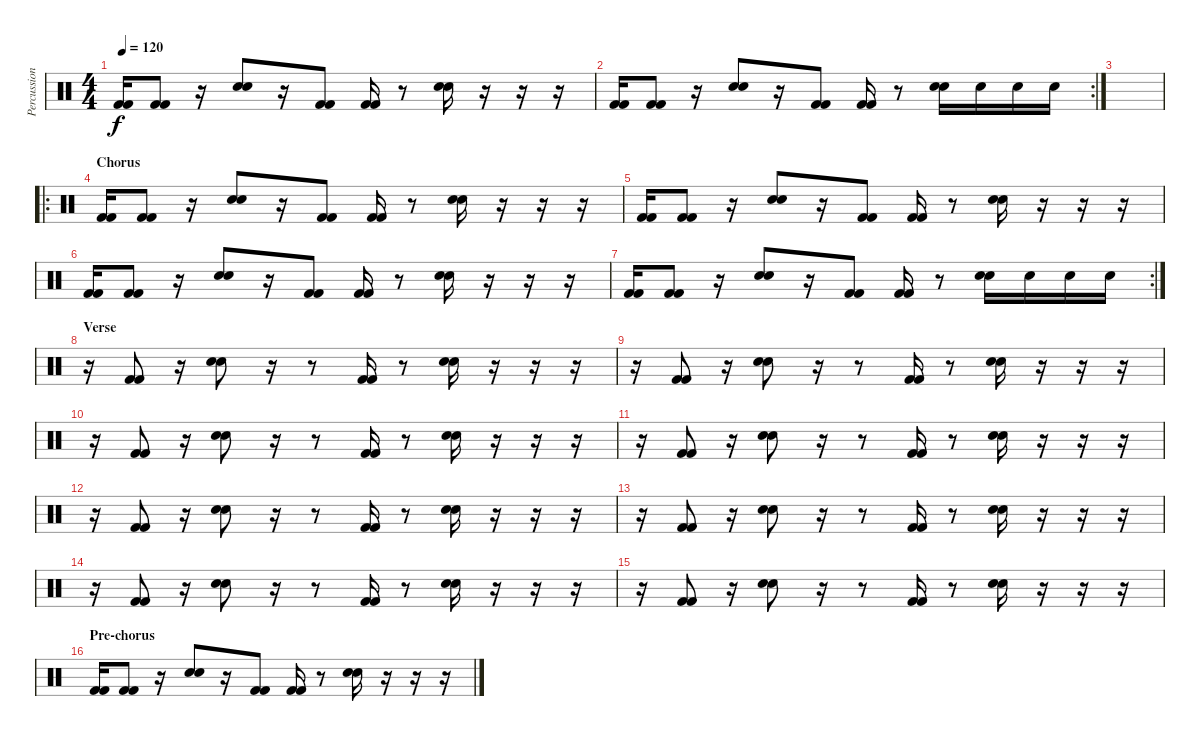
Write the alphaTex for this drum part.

\track ("Percussion" "Percussion") {instrument percussion}
\staff {score}
\articulation defaults
\ts (4 4)
\tempo 120
\clef neutral
\ks c
("Kick (hit) 2" "Kick (hit) 2").16{dy f} ("Kick (hit) 2" "Kick (hit) 2").8 r.16 ("Electric Snare (hit)" "Electric Snare (hit)").8 r.16 ("Kick (hit) 2" "Kick (hit) 2").8 ("Kick (hit) 2" "Kick (hit) 2").16 r.8 ("Electric Snare (hit)" "Electric Snare (hit)").16 r.16 r.16 r.16 |
\rc 2
("Kick (hit) 2" "Kick (hit) 2").16 ("Kick (hit) 2" "Kick (hit) 2").8 r.16 ("Electric Snare (hit)" "Electric Snare (hit)").8 r.16 ("Kick (hit) 2" "Kick (hit) 2").8 ("Kick (hit) 2" "Kick (hit) 2").16 r.8 ("Electric Snare (hit)" "Electric Snare (hit)").16 "Electric Snare (hit)".16 "Electric Snare (hit)".16 "Electric Snare (hit)".16 |
|
\ro
\section ("" "Chorus")
("Kick (hit) 2" "Kick (hit) 2").16 ("Kick (hit) 2" "Kick (hit) 2").8 r.16 ("Electric Snare (hit)" "Electric Snare (hit)").8 r.16 ("Kick (hit) 2" "Kick (hit) 2").8 ("Kick (hit) 2" "Kick (hit) 2").16 r.8 ("Electric Snare (hit)" "Electric Snare (hit)").16 r.16 r.16 r.16 |
("Kick (hit) 2" "Kick (hit) 2").16 ("Kick (hit) 2" "Kick (hit) 2").8 r.16 ("Electric Snare (hit)" "Electric Snare (hit)").8 r.16 ("Kick (hit) 2" "Kick (hit) 2").8 ("Kick (hit) 2" "Kick (hit) 2").16 r.8 ("Electric Snare (hit)" "Electric Snare (hit)").16 r.16 r.16 r.16 |
("Kick (hit) 2" "Kick (hit) 2").16 ("Kick (hit) 2" "Kick (hit) 2").8 r.16 ("Electric Snare (hit)" "Electric Snare (hit)").8 r.16 ("Kick (hit) 2" "Kick (hit) 2").8 ("Kick (hit) 2" "Kick (hit) 2").16 r.8 ("Electric Snare (hit)" "Electric Snare (hit)").16 r.16 r.16 r.16 |
\rc 2
("Kick (hit) 2" "Kick (hit) 2").16 ("Kick (hit) 2" "Kick (hit) 2").8 r.16 ("Electric Snare (hit)" "Electric Snare (hit)").8 r.16 ("Kick (hit) 2" "Kick (hit) 2").8 ("Kick (hit) 2" "Kick (hit) 2").16 r.8 ("Electric Snare (hit)" "Electric Snare (hit)").16 "Electric Snare (hit)".16 "Electric Snare (hit)".16 "Electric Snare (hit)".16 |
\section ("" "Verse")
r.16 ("Kick (hit) 2" "Kick (hit) 2").8 r.16 ("Electric Snare (hit)" "Electric Snare (hit)").8 r.16 r.8 ("Kick (hit) 2" "Kick (hit) 2").16 r.8 ("Electric Snare (hit)" "Electric Snare (hit)").16 r.16 r.16 r.16 |
r.16 ("Kick (hit) 2" "Kick (hit) 2").8 r.16 ("Electric Snare (hit)" "Electric Snare (hit)").8 r.16 r.8 ("Kick (hit) 2" "Kick (hit) 2").16 r.8 ("Electric Snare (hit)" "Electric Snare (hit)").16 r.16 r.16 r.16 |
r.16 ("Kick (hit) 2" "Kick (hit) 2").8 r.16 ("Electric Snare (hit)" "Electric Snare (hit)").8 r.16 r.8 ("Kick (hit) 2" "Kick (hit) 2").16 r.8 ("Electric Snare (hit)" "Electric Snare (hit)").16 r.16 r.16 r.16 |
r.16 ("Kick (hit) 2" "Kick (hit) 2").8 r.16 ("Electric Snare (hit)" "Electric Snare (hit)").8 r.16 r.8 ("Kick (hit) 2" "Kick (hit) 2").16 r.8 ("Electric Snare (hit)" "Electric Snare (hit)").16 r.16 r.16 r.16 |
r.16 ("Kick (hit) 2" "Kick (hit) 2").8 r.16 ("Electric Snare (hit)" "Electric Snare (hit)").8 r.16 r.8 ("Kick (hit) 2" "Kick (hit) 2").16 r.8 ("Electric Snare (hit)" "Electric Snare (hit)").16 r.16 r.16 r.16 |
r.16 ("Kick (hit) 2" "Kick (hit) 2").8 r.16 ("Electric Snare (hit)" "Electric Snare (hit)").8 r.16 r.8 ("Kick (hit) 2" "Kick (hit) 2").16 r.8 ("Electric Snare (hit)" "Electric Snare (hit)").16 r.16 r.16 r.16 |
r.16 ("Kick (hit) 2" "Kick (hit) 2").8 r.16 ("Electric Snare (hit)" "Electric Snare (hit)").8 r.16 r.8 ("Kick (hit) 2" "Kick (hit) 2").16 r.8 ("Electric Snare (hit)" "Electric Snare (hit)").16 r.16 r.16 r.16 |
r.16 ("Kick (hit) 2" "Kick (hit) 2").8 r.16 ("Electric Snare (hit)" "Electric Snare (hit)").8 r.16 r.8 ("Kick (hit) 2" "Kick (hit) 2").16 r.8 ("Electric Snare (hit)" "Electric Snare (hit)").16 r.16 r.16 r.16 |
\section ("" "Pre-chorus")
("Kick (hit) 2" "Kick (hit) 2").16 ("Kick (hit) 2" "Kick (hit) 2").8 r.16 ("Electric Snare (hit)" "Electric Snare (hit)").8 r.16 ("Kick (hit) 2" "Kick (hit) 2").8 ("Kick (hit) 2" "Kick (hit) 2").16 r.8 ("Electric Snare (hit)" "Electric Snare (hit)").16 r.16 r.16 r.16
